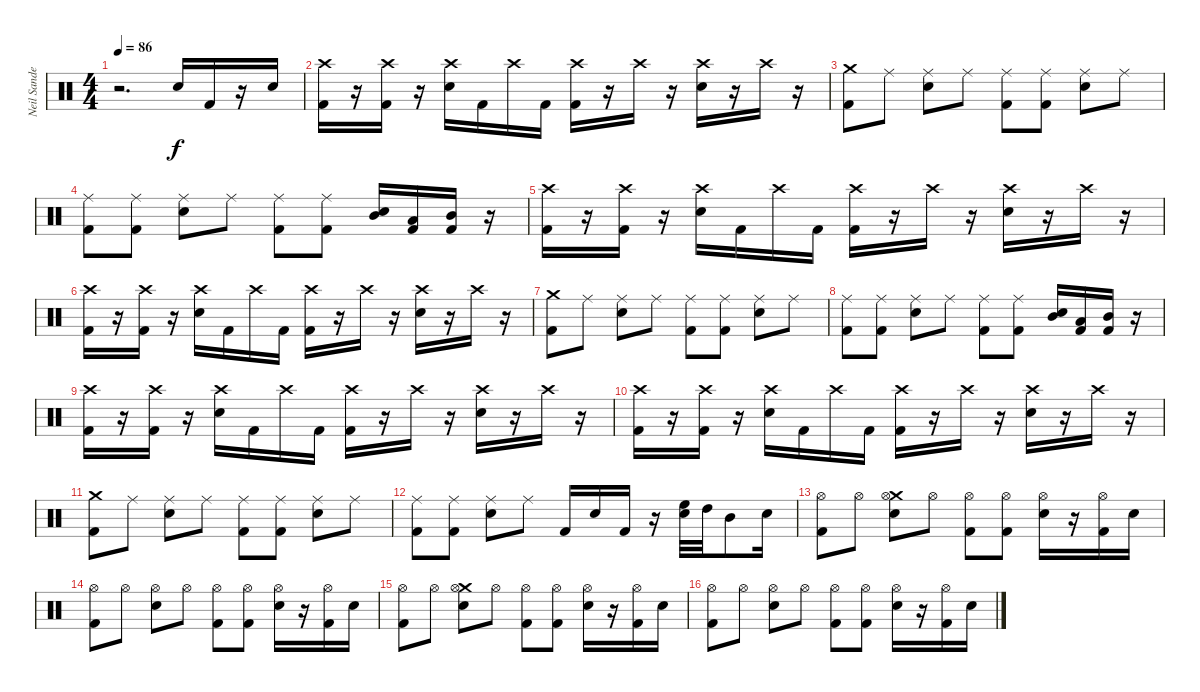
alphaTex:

\track ("Neil Sanderson" "Neil Sande") {instrument percussion}
\staff {score}
\articulation defaults
\ts (4 4)
\tempo 86
\clef neutral
\ks c
r.2{d dy f} "Snare (hit) 2".16 "Kick (hit) 2".16 r.16 "Snare (hit) 2".16 |
("Kick (hit) 2" "Crash high (hit)").16 r.16 ("Kick (hit) 2" "Crash high (hit)").16 r.16 ("Snare (hit) 2" "Crash high (hit)").16 "Kick (hit) 2".16 "Crash high (hit)".16 "Kick (hit) 2".16 ("Kick (hit) 2" "Crash high (hit)").16 r.16 "Crash high (hit)".16 r.16 ("Snare (hit) 2" "Crash high (hit)").16 r.16 "Crash high (hit)".16 r.16 |
("Kick (hit) 2" "Crash medium (hit)").8 "Ride (middle)".8 ("Snare (hit) 2" "Ride (middle)").8 "Ride (middle)".8 ("Kick (hit) 2" "Ride (middle)").8 ("Kick (hit) 2" "Ride (middle)").8 ("Snare (hit) 2" "Ride (middle)").8 "Ride (middle)".8 |
("Kick (hit) 2" "Ride (middle)").8 ("Kick (hit) 2" "Ride (middle)").8 ("Snare (hit) 2" "Ride (middle)").8 "Ride (middle)".8 ("Kick (hit) 2" "Ride (middle)").8 ("Kick (hit) 2" "Ride (middle)").8 ("Snare (hit) 2" "Mid Tom (hit)").16 ("Kick (hit) 2" "Low Tom (hit)").16 ("Kick (hit) 2" "Mid Tom (hit)").16 r.16 |
("Kick (hit) 2" "Crash high (hit)").16 r.16 ("Kick (hit) 2" "Crash high (hit)").16 r.16 ("Snare (hit) 2" "Crash high (hit)").16 "Kick (hit) 2".16 "Crash high (hit)".16 "Kick (hit) 2".16 ("Kick (hit) 2" "Crash high (hit)").16 r.16 "Crash high (hit)".16 r.16 ("Snare (hit) 2" "Crash high (hit)").16 r.16 "Crash high (hit)".16 r.16 |
("Kick (hit) 2" "Crash high (hit)").16 r.16 ("Kick (hit) 2" "Crash high (hit)").16 r.16 ("Snare (hit) 2" "Crash high (hit)").16 "Kick (hit) 2".16 "Crash high (hit)".16 "Kick (hit) 2".16 ("Kick (hit) 2" "Crash high (hit)").16 r.16 "Crash high (hit)".16 r.16 ("Snare (hit) 2" "Crash high (hit)").16 r.16 "Crash high (hit)".16 r.16 |
("Kick (hit) 2" "Crash medium (hit)").8 "Ride (middle)".8 ("Snare (hit) 2" "Ride (middle)").8 "Ride (middle)".8 ("Kick (hit) 2" "Ride (middle)").8 ("Kick (hit) 2" "Ride (middle)").8 ("Snare (hit) 2" "Ride (middle)").8 "Ride (middle)".8 |
("Kick (hit) 2" "Ride (middle)").8 ("Kick (hit) 2" "Ride (middle)").8 ("Snare (hit) 2" "Ride (middle)").8 "Ride (middle)".8 ("Kick (hit) 2" "Ride (middle)").8 ("Kick (hit) 2" "Ride (middle)").8 ("Snare (hit) 2" "Mid Tom (hit)").16 ("Kick (hit) 2" "Low Tom (hit)").16 ("Kick (hit) 2" "Mid Tom (hit)").16 r.16 |
("Kick (hit) 2" "Crash high (hit)").16 r.16 ("Kick (hit) 2" "Crash high (hit)").16 r.16 ("Snare (hit) 2" "Crash high (hit)").16 "Kick (hit) 2".16 "Crash high (hit)".16 "Kick (hit) 2".16 ("Kick (hit) 2" "Crash high (hit)").16 r.16 "Crash high (hit)".16 r.16 ("Snare (hit) 2" "Crash high (hit)").16 r.16 "Crash high (hit)".16 r.16 |
("Kick (hit) 2" "Crash high (hit)").16 r.16 ("Kick (hit) 2" "Crash high (hit)").16 r.16 ("Snare (hit) 2" "Crash high (hit)").16 "Kick (hit) 2".16 "Crash high (hit)".16 "Kick (hit) 2".16 ("Kick (hit) 2" "Crash high (hit)").16 r.16 "Crash high (hit)".16 r.16 ("Snare (hit) 2" "Crash high (hit)").16 r.16 "Crash high (hit)".16 r.16 |
("Kick (hit) 2" "Crash medium (hit)").8 "Ride (middle)".8 ("Snare (hit) 2" "Ride (middle)").8 "Ride (middle)".8 ("Kick (hit) 2" "Ride (middle)").8 ("Kick (hit) 2" "Ride (middle)").8 ("Snare (hit) 2" "Ride (middle)").8 "Ride (middle)".8 |
("Kick (hit) 2" "Ride (middle)").8 ("Kick (hit) 2" "Ride (middle)").8 ("Snare (hit) 2" "Ride (middle)").8 "Ride (middle)".8 "Kick (hit) 2".16 "Snare (hit) 2".16 "Kick (hit) 2".16 r.16 ("Snare (hit) 2" "High Floor Tom (hit)").32 "High Tom (hit)".32 "Mid Tom (hit)".8 "Snare (hit) 2".16 |
("Kick (hit) 2" "Hi-Hat (open)").8 "Hi-Hat (open)".8 ("Snare (hit) 2" "Crash medium (hit)" "Hi-Hat (open)").8 "Hi-Hat (open)".8 ("Kick (hit) 2" "Hi-Hat (open)").8 ("Kick (hit) 2" "Hi-Hat (open)").8 ("Snare (hit) 2" "Hi-Hat (open)").16 r.16 ("Kick (hit) 2" "Hi-Hat (open)").16 "Snare (hit) 2".16 |
("Kick (hit) 2" "Hi-Hat (open)").8 "Hi-Hat (open)".8 ("Snare (hit) 2" "Hi-Hat (open)").8 "Hi-Hat (open)".8 ("Kick (hit) 2" "Hi-Hat (open)").8 ("Kick (hit) 2" "Hi-Hat (open)").8 ("Snare (hit) 2" "Hi-Hat (open)").16 r.16 ("Kick (hit) 2" "Hi-Hat (open)").16 "Snare (hit) 2".16 |
("Kick (hit) 2" "Hi-Hat (open)").8 "Hi-Hat (open)".8 ("Snare (hit) 2" "Crash medium (hit)" "Hi-Hat (open)").8 "Hi-Hat (open)".8 ("Kick (hit) 2" "Hi-Hat (open)").8 ("Kick (hit) 2" "Hi-Hat (open)").8 ("Snare (hit) 2" "Hi-Hat (open)").16 r.16 ("Kick (hit) 2" "Hi-Hat (open)").16 "Snare (hit) 2".16 |
("Kick (hit) 2" "Hi-Hat (open)").8 "Hi-Hat (open)".8 ("Snare (hit) 2" "Hi-Hat (open)").8 "Hi-Hat (open)".8 ("Kick (hit) 2" "Hi-Hat (open)").8 ("Kick (hit) 2" "Hi-Hat (open)").8 ("Snare (hit) 2" "Hi-Hat (open)").16 r.16 ("Kick (hit) 2" "Hi-Hat (open)").16 "Snare (hit) 2".16
